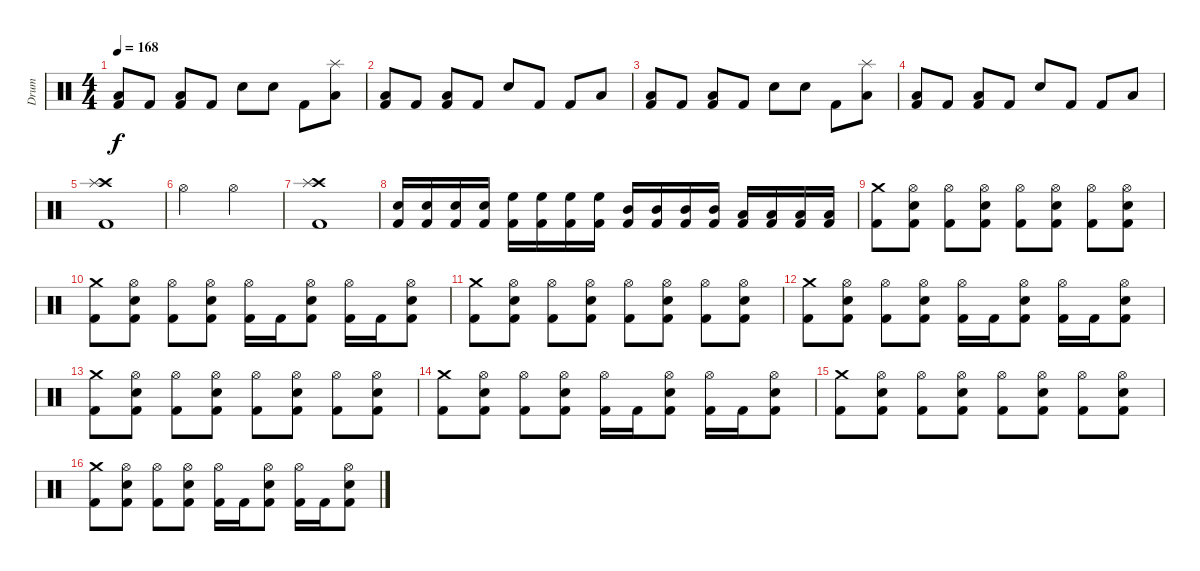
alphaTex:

\track ("Drum" "Drum") {instrument percussion}
\staff {score}
\articulation defaults
\ts (4 4)
\tempo 168
\clef neutral
\ks c
("Low Tom (hit)" "Kick (hit) 2").8{dy f} "Kick (hit) 2".8 ("Low Floor Tom (hit)" "Kick (hit) 2").8 "Kick (hit) 2".8 "Electric Snare (hit)".8 "Electric Snare (hit)".8 "Kick (hit) 2".8 ("Low Tom (hit)" "Splash (hit)").8 |
("Low Tom (hit)" "Kick (hit) 2").8 "Kick (hit) 2".8 ("Low Floor Tom (hit)" "Kick (hit) 2").8 "Kick (hit) 2".8 "Electric Snare (hit)".8 "Kick (hit) 2".8 "Kick (hit) 2".8 "Low Floor Tom (hit)".8 |
("Low Tom (hit)" "Kick (hit) 2").8 "Kick (hit) 2".8 ("Low Floor Tom (hit)" "Kick (hit) 2").8 "Kick (hit) 2".8 "Electric Snare (hit)".8 "Electric Snare (hit)".8 "Kick (hit) 2".8 ("Low Tom (hit)" "Splash (hit)").8 |
("Low Tom (hit)" "Kick (hit) 2").8 "Kick (hit) 2".8 ("Low Floor Tom (hit)" "Kick (hit) 2").8 "Kick (hit) 2".8 "Electric Snare (hit)".8 "Kick (hit) 2".8 "Kick (hit) 2".8 "Low Floor Tom (hit)".8 |
("Crash high (hit)" "Splash (hit)" "Kick (hit) 2").1 |
"Hi-Hat (open)".2 "Hi-Hat (open)".2 |
("Crash high (hit)" "Splash (hit)" "Kick (hit) 2").1 |
("Electric Snare (hit)" "Kick (hit) 2").16 ("Electric Snare (hit)" "Kick (hit) 2").16 ("Electric Snare (hit)" "Kick (hit) 2").16 ("Electric Snare (hit)" "Kick (hit) 2").16 ("High Floor Tom (hit)" "Kick (hit) 2").16 ("High Floor Tom (hit)" "Kick (hit) 2").16 ("High Floor Tom (hit)" "Kick (hit) 2").16 ("High Floor Tom (hit)" "Kick (hit) 2").16 ("Mid Tom (hit)" "Kick (hit) 2").16 ("Mid Tom (hit)" "Kick (hit) 2").16 ("Mid Tom (hit)" "Kick (hit) 2").16 ("Mid Tom (hit)" "Kick (hit) 2").16 ("Low Tom (hit)" "Kick (hit) 2").16 ("Low Tom (hit)" "Kick (hit) 2").16 ("Low Tom (hit)" "Kick (hit) 2").16 ("Low Tom (hit)" "Kick (hit) 2").16 |
("Crash medium (hit)" "Kick (hit) 2").8 ("Hi-Hat (open)" "Electric Snare (hit)" "Kick (hit) 2").8 ("Hi-Hat (open)" "Kick (hit) 2").8 ("Hi-Hat (open)" "Electric Snare (hit)" "Kick (hit) 2").8 ("Hi-Hat (open)" "Kick (hit) 2").8 ("Hi-Hat (open)" "Electric Snare (hit)" "Kick (hit) 2").8 ("Hi-Hat (open)" "Kick (hit) 2").8 ("Hi-Hat (open)" "Electric Snare (hit)" "Kick (hit) 2").8 |
("Crash medium (hit)" "Kick (hit) 2").8 ("Hi-Hat (open)" "Electric Snare (hit)" "Kick (hit) 2").8 ("Hi-Hat (open)" "Kick (hit) 2").8 ("Hi-Hat (open)" "Electric Snare (hit)" "Kick (hit) 2").8 ("Hi-Hat (open)" "Kick (hit) 2").16 "Kick (hit) 2".16 ("Kick (hit) 2" "Hi-Hat (open)" "Electric Snare (hit)").8 ("Hi-Hat (open)" "Kick (hit) 2").16 "Kick (hit) 2".16 ("Kick (hit) 2" "Hi-Hat (open)" "Electric Snare (hit)").8 |
("Crash medium (hit)" "Kick (hit) 2").8 ("Hi-Hat (open)" "Electric Snare (hit)" "Kick (hit) 2").8 ("Hi-Hat (open)" "Kick (hit) 2").8 ("Hi-Hat (open)" "Electric Snare (hit)" "Kick (hit) 2").8 ("Hi-Hat (open)" "Kick (hit) 2").8 ("Hi-Hat (open)" "Electric Snare (hit)" "Kick (hit) 2").8 ("Hi-Hat (open)" "Kick (hit) 2").8 ("Hi-Hat (open)" "Electric Snare (hit)" "Kick (hit) 2").8 |
("Crash medium (hit)" "Kick (hit) 2").8 ("Hi-Hat (open)" "Electric Snare (hit)" "Kick (hit) 2").8 ("Hi-Hat (open)" "Kick (hit) 2").8 ("Hi-Hat (open)" "Electric Snare (hit)" "Kick (hit) 2").8 ("Hi-Hat (open)" "Kick (hit) 2").16 "Kick (hit) 2".16 ("Kick (hit) 2" "Hi-Hat (open)" "Electric Snare (hit)").8 ("Hi-Hat (open)" "Kick (hit) 2").16 "Kick (hit) 2".16 ("Kick (hit) 2" "Hi-Hat (open)" "Electric Snare (hit)").8 |
("Crash medium (hit)" "Kick (hit) 2").8 ("Hi-Hat (open)" "Electric Snare (hit)" "Kick (hit) 2").8 ("Hi-Hat (open)" "Kick (hit) 2").8 ("Hi-Hat (open)" "Electric Snare (hit)" "Kick (hit) 2").8 ("Hi-Hat (open)" "Kick (hit) 2").8 ("Hi-Hat (open)" "Electric Snare (hit)" "Kick (hit) 2").8 ("Hi-Hat (open)" "Kick (hit) 2").8 ("Hi-Hat (open)" "Electric Snare (hit)" "Kick (hit) 2").8 |
("Crash medium (hit)" "Kick (hit) 2").8 ("Hi-Hat (open)" "Electric Snare (hit)" "Kick (hit) 2").8 ("Hi-Hat (open)" "Kick (hit) 2").8 ("Hi-Hat (open)" "Electric Snare (hit)" "Kick (hit) 2").8 ("Hi-Hat (open)" "Kick (hit) 2").16 "Kick (hit) 2".16 ("Kick (hit) 2" "Hi-Hat (open)" "Electric Snare (hit)").8 ("Hi-Hat (open)" "Kick (hit) 2").16 "Kick (hit) 2".16 ("Kick (hit) 2" "Hi-Hat (open)" "Electric Snare (hit)").8 |
("Crash medium (hit)" "Kick (hit) 2").8 ("Hi-Hat (open)" "Electric Snare (hit)" "Kick (hit) 2").8 ("Hi-Hat (open)" "Kick (hit) 2").8 ("Hi-Hat (open)" "Electric Snare (hit)" "Kick (hit) 2").8 ("Hi-Hat (open)" "Kick (hit) 2").8 ("Hi-Hat (open)" "Electric Snare (hit)" "Kick (hit) 2").8 ("Hi-Hat (open)" "Kick (hit) 2").8 ("Hi-Hat (open)" "Electric Snare (hit)" "Kick (hit) 2").8 |
("Crash medium (hit)" "Kick (hit) 2").8 ("Hi-Hat (open)" "Electric Snare (hit)" "Kick (hit) 2").8 ("Hi-Hat (open)" "Kick (hit) 2").8 ("Hi-Hat (open)" "Electric Snare (hit)" "Kick (hit) 2").8 ("Hi-Hat (open)" "Kick (hit) 2").16 "Kick (hit) 2".16 ("Kick (hit) 2" "Hi-Hat (open)" "Electric Snare (hit)").8 ("Hi-Hat (open)" "Kick (hit) 2").16 "Kick (hit) 2".16 ("Kick (hit) 2" "Hi-Hat (open)" "Electric Snare (hit)").8
